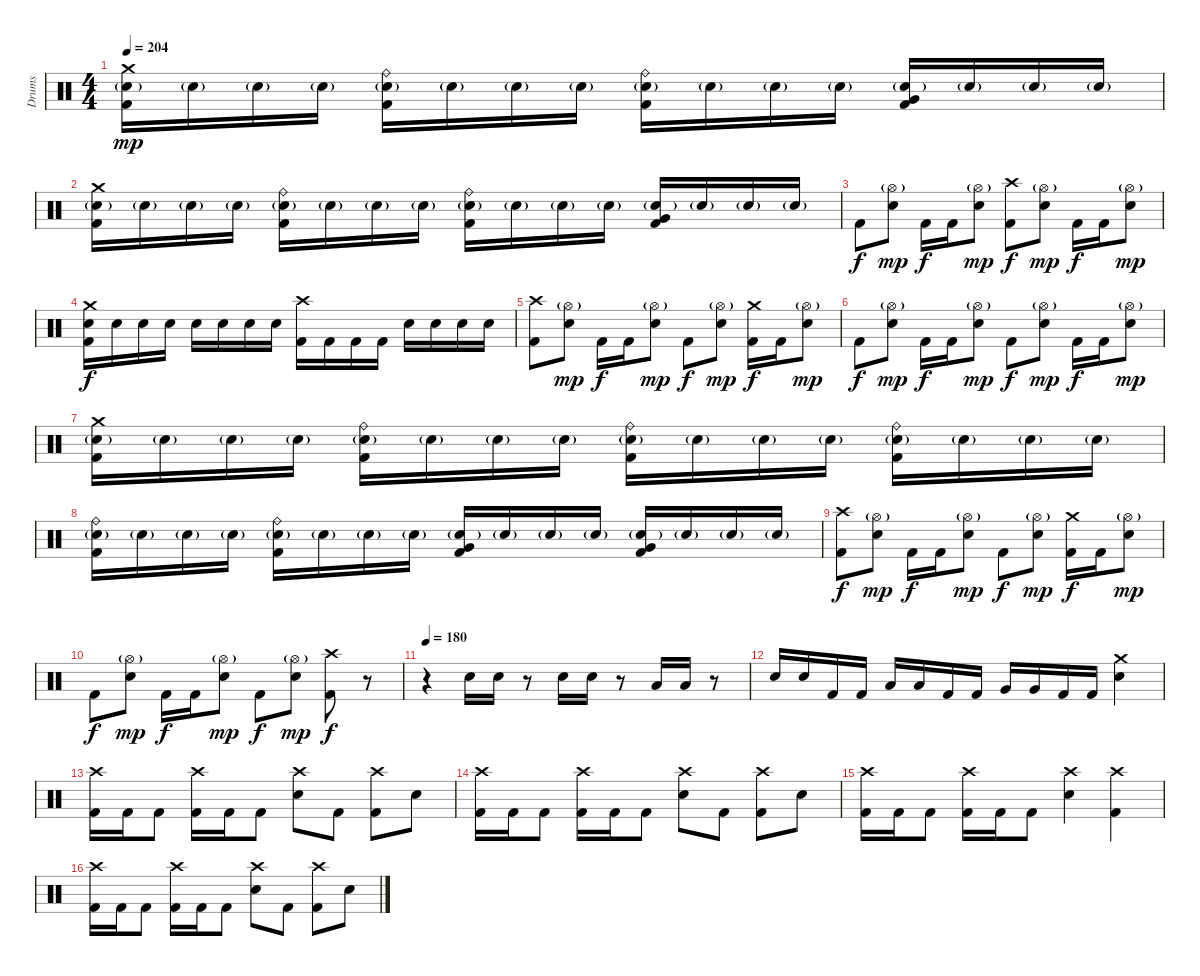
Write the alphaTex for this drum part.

\track ("Drums" "Drums") {instrument percussion}
\staff {score}
\articulation defaults
\ts (4 4)
\tempo 204
\clef neutral
\ks c
("Crash medium (hit)" "Electric Snare (hit)"{g} "Kick (hit) 2").16{dy mp} "Electric Snare (hit)"{g}.16 "Electric Snare (hit)"{g}.16 "Electric Snare (hit)"{g}.16 ("Ride (bell)" "Electric Snare (hit)"{g} "Kick (hit) 2").16 "Electric Snare (hit)"{g}.16 "Electric Snare (hit)"{g}.16 "Electric Snare (hit)"{g}.16 ("Ride (bell)" "Electric Snare (hit)"{g} "Kick (hit) 2").16 "Electric Snare (hit)"{g}.16 "Electric Snare (hit)"{g}.16 "Electric Snare (hit)"{g}.16 ("Very Low Tom (hit)" "Electric Snare (hit)"{g} "Kick (hit) 2").16 "Electric Snare (hit)"{g}.16 "Electric Snare (hit)"{g}.16 "Electric Snare (hit)"{g}.16 |
("Crash medium (hit)" "Electric Snare (hit)"{g} "Kick (hit) 2").16 "Electric Snare (hit)"{g}.16 "Electric Snare (hit)"{g}.16 "Electric Snare (hit)"{g}.16 ("Ride (bell)" "Electric Snare (hit)"{g} "Kick (hit) 2").16 "Electric Snare (hit)"{g}.16 "Electric Snare (hit)"{g}.16 "Electric Snare (hit)"{g}.16 ("Ride (bell)" "Electric Snare (hit)"{g} "Kick (hit) 2").16 "Electric Snare (hit)"{g}.16 "Electric Snare (hit)"{g}.16 "Electric Snare (hit)"{g}.16 ("Very Low Tom (hit)" "Electric Snare (hit)"{g} "Kick (hit) 2").16 "Electric Snare (hit)"{g}.16 "Electric Snare (hit)"{g}.16 "Electric Snare (hit)"{g}.16 |
"Kick (hit) 2".8{dy f} ("Hi-Hat (open)"{g} "Electric Snare (hit)").8{dy mp} "Kick (hit) 2".16{dy f} "Kick (hit) 2".16 ("Hi-Hat (open)"{g} "Electric Snare (hit)").8{dy mp} ("Crash high (hit)" "Kick (hit) 2").8{dy f} ("Hi-Hat (open)"{g} "Electric Snare (hit)").8{dy mp} "Kick (hit) 2".16{dy f} "Kick (hit) 2".16 ("Hi-Hat (open)"{g} "Electric Snare (hit)").8{dy mp} |
("Crash medium (hit)" "Electric Snare (hit)" "Kick (hit) 2").16{dy f} "Electric Snare (hit)".16 "Electric Snare (hit)".16 "Electric Snare (hit)".16 "Electric Snare (hit)".16 "Electric Snare (hit)".16 "Electric Snare (hit)".16 "Electric Snare (hit)".16 ("Crash high (hit)" "Kick (hit) 2").16 "Kick (hit) 2".16 "Kick (hit) 2".16 "Kick (hit) 2".16 "Electric Snare (hit)".16 "Electric Snare (hit)".16 "Electric Snare (hit)".16 "Electric Snare (hit)".16 |
("Crash high (hit)" "Kick (hit) 2").8 ("Hi-Hat (open)"{g} "Electric Snare (hit)").8{dy mp} "Kick (hit) 2".16{dy f} "Kick (hit) 2".16 ("Hi-Hat (open)"{g} "Electric Snare (hit)").8{dy mp} "Kick (hit) 2".8{dy f} ("Hi-Hat (open)"{g} "Electric Snare (hit)").8{dy mp} ("Crash medium (hit)" "Kick (hit) 2").16{dy f} "Kick (hit) 2".16 ("Hi-Hat (open)"{g} "Electric Snare (hit)").8{dy mp} |
"Kick (hit) 2".8{dy f} ("Hi-Hat (open)"{g} "Electric Snare (hit)").8{dy mp} "Kick (hit) 2".16{dy f} "Kick (hit) 2".16 ("Hi-Hat (open)"{g} "Electric Snare (hit)").8{dy mp} "Kick (hit) 2".8{dy f} ("Hi-Hat (open)"{g} "Electric Snare (hit)").8{dy mp} "Kick (hit) 2".16{dy f} "Kick (hit) 2".16 ("Hi-Hat (open)"{g} "Electric Snare (hit)").8{dy mp} |
("Crash medium (hit)" "Electric Snare (hit)"{g} "Kick (hit) 2").16 "Electric Snare (hit)"{g}.16 "Electric Snare (hit)"{g}.16 "Electric Snare (hit)"{g}.16 ("Ride (bell)" "Electric Snare (hit)"{g} "Kick (hit) 2").16 "Electric Snare (hit)"{g}.16 "Electric Snare (hit)"{g}.16 "Electric Snare (hit)"{g}.16 ("Ride (bell)" "Electric Snare (hit)"{g} "Kick (hit) 2").16 "Electric Snare (hit)"{g}.16 "Electric Snare (hit)"{g}.16 "Electric Snare (hit)"{g}.16 ("Ride (bell)" "Electric Snare (hit)"{g} "Kick (hit) 2").16 "Electric Snare (hit)"{g}.16 "Electric Snare (hit)"{g}.16 "Electric Snare (hit)"{g}.16 |
("Ride (bell)" "Electric Snare (hit)"{g} "Kick (hit) 2").16 "Electric Snare (hit)"{g}.16 "Electric Snare (hit)"{g}.16 "Electric Snare (hit)"{g}.16 ("Ride (bell)" "Electric Snare (hit)"{g} "Kick (hit) 2").16 "Electric Snare (hit)"{g}.16 "Electric Snare (hit)"{g}.16 "Electric Snare (hit)"{g}.16 ("Very Low Tom (hit)" "Electric Snare (hit)"{g} "Kick (hit) 2").16 "Electric Snare (hit)"{g}.16 "Electric Snare (hit)"{g}.16 "Electric Snare (hit)"{g}.16 ("Very Low Tom (hit)" "Electric Snare (hit)"{g} "Kick (hit) 2").16 "Electric Snare (hit)"{g}.16 "Electric Snare (hit)"{g}.16 "Electric Snare (hit)"{g}.16 |
("Crash high (hit)" "Kick (hit) 2").8{dy f} ("Hi-Hat (open)"{g} "Electric Snare (hit)").8{dy mp} "Kick (hit) 2".16{dy f} "Kick (hit) 2".16 ("Hi-Hat (open)"{g} "Electric Snare (hit)").8{dy mp} "Kick (hit) 2".8{dy f} ("Hi-Hat (open)"{g} "Electric Snare (hit)").8{dy mp} ("Crash medium (hit)" "Kick (hit) 2").16{dy f} "Kick (hit) 2".16 ("Hi-Hat (open)"{g} "Electric Snare (hit)").8{dy mp} |
"Kick (hit) 2".8{dy f} ("Hi-Hat (open)"{g} "Electric Snare (hit)").8{dy mp} "Kick (hit) 2".16{dy f} "Kick (hit) 2".16 ("Hi-Hat (open)"{g} "Electric Snare (hit)").8{dy mp} "Kick (hit) 2".8{dy f} ("Hi-Hat (open)"{g} "Electric Snare (hit)").8{dy mp} ("Crash high (hit)" "Kick (hit) 2").8{dy f} r.8{volume 0} |
\tempo 180
r.4 "Electric Snare (hit)".16{volume 13} "Electric Snare (hit)".16 r.8 "Electric Snare (hit)".16 "Electric Snare (hit)".16 r.8 "Low Tom (hit)".16 "Low Tom (hit)".16 r.8 |
"Electric Snare (hit)".16 "Electric Snare (hit)".16 "Kick (hit) 2".16 "Kick (hit) 2".16 "Low Tom (hit)".16 "Low Tom (hit)".16 "Kick (hit) 2".16 "Kick (hit) 2".16 "Very Low Tom (hit)".16 "Very Low Tom (hit)".16 "Kick (hit) 2".16 "Kick (hit) 2".16 ("Crash medium (hit)" "Electric Snare (hit)").4 |
("Crash high (hit)" "Kick (hit) 2").16 "Kick (hit) 2".16 "Kick (hit) 2".8 ("Crash high (hit)" "Kick (hit) 2").16 "Kick (hit) 2".16 "Kick (hit) 2".8 ("Crash high (hit)" "Electric Snare (hit)").8 "Kick (hit) 2".8 ("Crash high (hit)" "Kick (hit) 2").8 "Electric Snare (hit)".8 |
("Crash high (hit)" "Kick (hit) 2").16 "Kick (hit) 2".16 "Kick (hit) 2".8 ("Crash high (hit)" "Kick (hit) 2").16 "Kick (hit) 2".16 "Kick (hit) 2".8 ("Crash high (hit)" "Electric Snare (hit)").8 "Kick (hit) 2".8 ("Crash high (hit)" "Kick (hit) 2").8 "Electric Snare (hit)".8 |
("Crash high (hit)" "Kick (hit) 2").16 "Kick (hit) 2".16 "Kick (hit) 2".8 ("Crash high (hit)" "Kick (hit) 2").16 "Kick (hit) 2".16 "Kick (hit) 2".8 ("Crash high (hit)" "Electric Snare (hit)").4 ("Crash high (hit)" "Kick (hit) 2").4 |
("Crash high (hit)" "Kick (hit) 2").16 "Kick (hit) 2".16 "Kick (hit) 2".8 ("Crash high (hit)" "Kick (hit) 2").16 "Kick (hit) 2".16 "Kick (hit) 2".8 ("Crash high (hit)" "Electric Snare (hit)").8 "Kick (hit) 2".8 ("Crash high (hit)" "Kick (hit) 2").8 "Electric Snare (hit)".8
